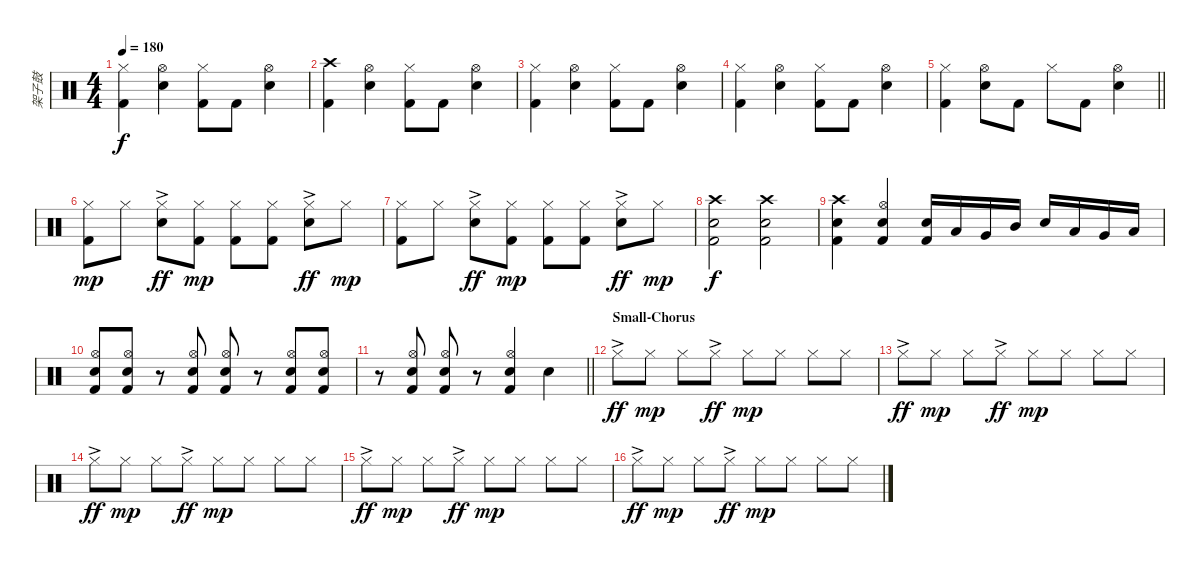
\track ("架子鼓" "架子鼓") {instrument percussion}
\staff {score}
\articulation defaults
\ts (4 4)
\tempo 180
\clef neutral
\ks c
("Hi-Hat (closed)" "Kick (hit) 2").4{dy f} ("Hi-Hat (open)" "Snare (hit) 2").4 ("Hi-Hat (closed)" "Kick (hit) 2").8 "Kick (hit) 2".8 ("Hi-Hat (open)" "Snare (hit) 2").4 |
("Crash high (hit)" "Kick (hit) 2").4 ("Hi-Hat (open)" "Snare (hit) 2").4 ("Hi-Hat (closed)" "Kick (hit) 2").8 "Kick (hit) 2".8 ("Hi-Hat (open)" "Snare (hit) 2").4 |
("Hi-Hat (closed)" "Kick (hit) 2").4 ("Hi-Hat (open)" "Snare (hit) 2").4 ("Hi-Hat (closed)" "Kick (hit) 2").8 "Kick (hit) 2".8 ("Hi-Hat (open)" "Snare (hit) 2").4 |
("Hi-Hat (closed)" "Kick (hit) 2").4 ("Hi-Hat (open)" "Snare (hit) 2").4 ("Hi-Hat (closed)" "Kick (hit) 2").8 "Kick (hit) 2".8 ("Hi-Hat (open)" "Snare (hit) 2").4 |
\barLineRight lightlight
("Hi-Hat (closed)" "Kick (hit) 2").4 ("Hi-Hat (open)" "Snare (hit) 2").8 "Kick (hit) 2".8 "Hi-Hat (closed)".8 "Kick (hit) 2".8 ("Hi-Hat (open)" "Snare (hit) 2").4 |
("Hi-Hat (closed)" "Kick (hit) 2").8{dy mp} "Hi-Hat (closed)".8 ("Hi-Hat (closed)"{ac} "Snare (hit) 2").8{dy ff} ("Hi-Hat (closed)" "Kick (hit) 2").8{dy mp} ("Hi-Hat (closed)" "Kick (hit) 2").8 ("Hi-Hat (closed)" "Kick (hit) 2").8 ("Hi-Hat (closed)"{ac} "Snare (hit) 2").8{dy ff} "Hi-Hat (closed)".8{dy mp} |
("Hi-Hat (closed)" "Kick (hit) 2").8 "Hi-Hat (closed)".8 ("Hi-Hat (closed)"{ac} "Snare (hit) 2").8{dy ff} ("Hi-Hat (closed)" "Kick (hit) 2").8{dy mp} ("Hi-Hat (closed)" "Kick (hit) 2").8 ("Hi-Hat (closed)" "Kick (hit) 2").8 ("Hi-Hat (closed)"{ac} "Snare (hit) 2").8{dy ff} "Hi-Hat (closed)".8{dy mp} |
("Crash high (hit)" "Snare (hit) 2" "Kick (hit) 2").2{dy f} ("Crash high (hit)" "Snare (hit) 2" "Kick (hit) 2").2 |
("Crash high (hit)" "Snare (hit) 2" "Kick (hit) 2").4 ("Hi-Hat (open)" "Snare (hit) 2" "Kick (hit) 2").4 ("Snare (hit) 2" "Kick (hit) 2").16 "Low Tom (hit)".16 "Very Low Tom (hit)".16 "Mid Tom (hit)".16 "Snare (hit) 2".16 "Low Tom (hit)".16 "Very Low Tom (hit)".16 "Low Floor Tom (hit)".16 |
("Hi-Hat (open)" "Snare (hit) 2" "Kick (hit) 2").8 ("Hi-Hat (open)" "Snare (hit) 2" "Kick (hit) 2").8 r.8 ("Hi-Hat (open)" "Snare (hit) 2" "Kick (hit) 2").8 ("Hi-Hat (open)" "Snare (hit) 2" "Kick (hit) 2").8 r.8 ("Hi-Hat (open)" "Snare (hit) 2" "Kick (hit) 2").8 ("Hi-Hat (open)" "Snare (hit) 2" "Kick (hit) 2").8 |
\barLineRight lightlight
r.8 ("Hi-Hat (open)" "Snare (hit) 2" "Kick (hit) 2").8 ("Hi-Hat (open)" "Snare (hit) 2" "Kick (hit) 2").8 r.8 ("Hi-Hat (open)" "Snare (hit) 2" "Kick (hit) 2").4 "Snare (hit) 2".4 |
\section ("" "Small-Chorus")
"Hi-Hat (closed)"{ac}.8{dy ff} "Hi-Hat (closed)".8{dy mp} "Hi-Hat (closed)".8 "Hi-Hat (closed)"{ac}.8{dy ff} "Hi-Hat (closed)".8{dy mp} "Hi-Hat (closed)".8 "Hi-Hat (closed)".8 "Hi-Hat (closed)".8 |
"Hi-Hat (closed)"{ac}.8{dy ff} "Hi-Hat (closed)".8{dy mp} "Hi-Hat (closed)".8 "Hi-Hat (closed)"{ac}.8{dy ff} "Hi-Hat (closed)".8{dy mp} "Hi-Hat (closed)".8 "Hi-Hat (closed)".8 "Hi-Hat (closed)".8 |
"Hi-Hat (closed)"{ac}.8{dy ff} "Hi-Hat (closed)".8{dy mp} "Hi-Hat (closed)".8 "Hi-Hat (closed)"{ac}.8{dy ff} "Hi-Hat (closed)".8{dy mp} "Hi-Hat (closed)".8 "Hi-Hat (closed)".8 "Hi-Hat (closed)".8 |
"Hi-Hat (closed)"{ac}.8{dy ff} "Hi-Hat (closed)".8{dy mp} "Hi-Hat (closed)".8 "Hi-Hat (closed)"{ac}.8{dy ff} "Hi-Hat (closed)".8{dy mp} "Hi-Hat (closed)".8 "Hi-Hat (closed)".8 "Hi-Hat (closed)".8 |
"Hi-Hat (closed)"{ac}.8{dy ff} "Hi-Hat (closed)".8{dy mp} "Hi-Hat (closed)".8 "Hi-Hat (closed)"{ac}.8{dy ff} "Hi-Hat (closed)".8{dy mp} "Hi-Hat (closed)".8 "Hi-Hat (closed)".8 "Hi-Hat (closed)".8
